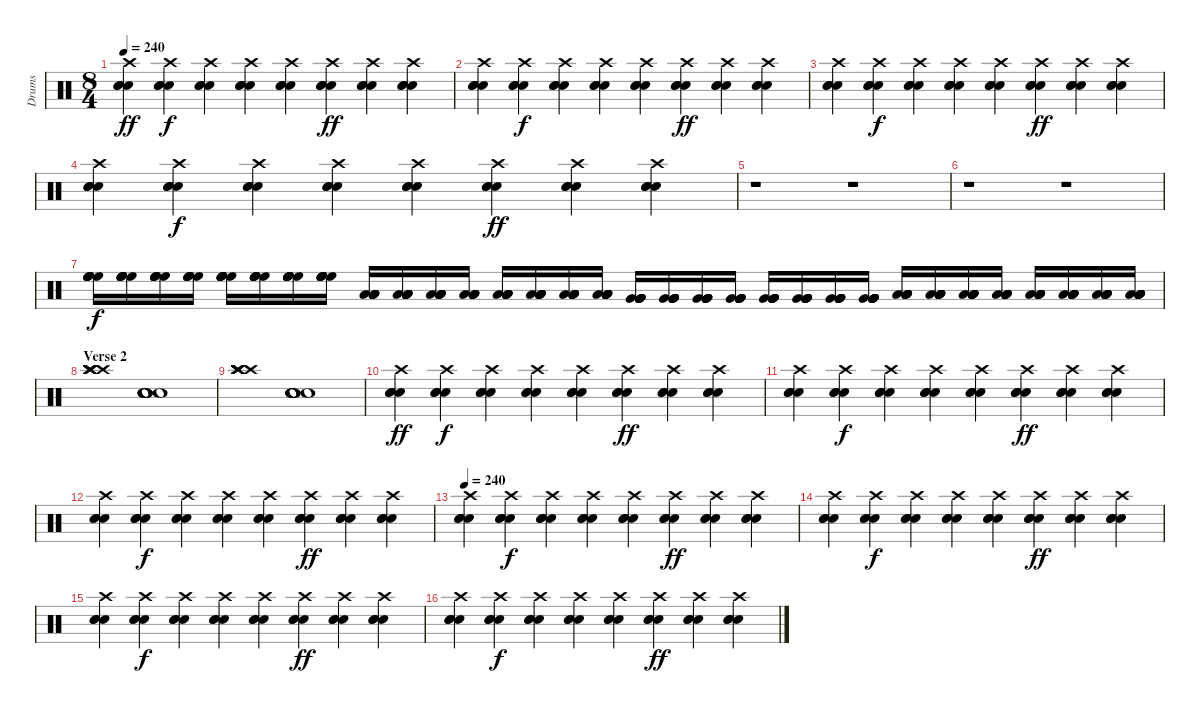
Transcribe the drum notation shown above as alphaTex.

\track ("Drums" "Drums") {instrument percussion}
\staff {score}
\articulation defaults
\ts (8 4)
\tempo 240
\clef neutral
\ks c
("Crash high (hit)" "Snare (hit) 2" "Snare (hit) 2" "Snare (hit) 2").4{dy ff} ("Crash high (hit)" "Snare (hit) 2" "Snare (hit) 2" "Snare (hit) 2").4{dy f} ("Crash high (hit)" "Snare (hit) 2" "Snare (hit) 2" "Snare (hit) 2").4 ("Crash high (hit)" "Snare (hit) 2" "Snare (hit) 2" "Snare (hit) 2").4 ("Crash high (hit)" "Snare (hit) 2" "Snare (hit) 2" "Snare (hit) 2").4 ("Crash high (hit)" "Snare (hit) 2" "Snare (hit) 2" "Snare (hit) 2").4{dy ff} ("Crash high (hit)" "Snare (hit) 2" "Snare (hit) 2" "Snare (hit) 2").4 ("Crash high (hit)" "Snare (hit) 2" "Snare (hit) 2" "Snare (hit) 2").4 |
("Crash high (hit)" "Snare (hit) 2" "Snare (hit) 2" "Snare (hit) 2").4 ("Crash high (hit)" "Snare (hit) 2" "Snare (hit) 2" "Snare (hit) 2").4{dy f} ("Crash high (hit)" "Snare (hit) 2" "Snare (hit) 2" "Snare (hit) 2").4 ("Crash high (hit)" "Snare (hit) 2" "Snare (hit) 2" "Snare (hit) 2").4 ("Crash high (hit)" "Snare (hit) 2" "Snare (hit) 2" "Snare (hit) 2").4 ("Crash high (hit)" "Snare (hit) 2" "Snare (hit) 2" "Snare (hit) 2").4{dy ff} ("Crash high (hit)" "Snare (hit) 2" "Snare (hit) 2" "Snare (hit) 2").4 ("Crash high (hit)" "Snare (hit) 2" "Snare (hit) 2" "Snare (hit) 2").4 |
("Crash high (hit)" "Snare (hit) 2" "Snare (hit) 2" "Snare (hit) 2").4 ("Crash high (hit)" "Snare (hit) 2" "Snare (hit) 2" "Snare (hit) 2").4{dy f} ("Crash high (hit)" "Snare (hit) 2" "Snare (hit) 2" "Snare (hit) 2").4 ("Crash high (hit)" "Snare (hit) 2" "Snare (hit) 2" "Snare (hit) 2").4 ("Crash high (hit)" "Snare (hit) 2" "Snare (hit) 2" "Snare (hit) 2").4 ("Crash high (hit)" "Snare (hit) 2" "Snare (hit) 2" "Snare (hit) 2").4{dy ff} ("Crash high (hit)" "Snare (hit) 2" "Snare (hit) 2" "Snare (hit) 2").4 ("Crash high (hit)" "Snare (hit) 2" "Snare (hit) 2" "Snare (hit) 2").4 |
("Crash high (hit)" "Snare (hit) 2" "Snare (hit) 2" "Snare (hit) 2").4 ("Crash high (hit)" "Snare (hit) 2" "Snare (hit) 2" "Snare (hit) 2").4{dy f} ("Crash high (hit)" "Snare (hit) 2" "Snare (hit) 2" "Snare (hit) 2").4 ("Crash high (hit)" "Snare (hit) 2" "Snare (hit) 2" "Snare (hit) 2").4 ("Crash high (hit)" "Snare (hit) 2" "Snare (hit) 2" "Snare (hit) 2").4 ("Crash high (hit)" "Snare (hit) 2" "Snare (hit) 2" "Snare (hit) 2").4{dy ff} ("Crash high (hit)" "Snare (hit) 2" "Snare (hit) 2" "Snare (hit) 2").4 ("Crash high (hit)" "Snare (hit) 2" "Snare (hit) 2" "Snare (hit) 2").4 |
r.1 r.1 |
r.1 r.1 |
("High Floor Tom (hit)" "High Floor Tom (hit)" "High Floor Tom (hit)" "High Floor Tom (hit)" "High Floor Tom (hit)" "High Floor Tom (hit)").16{dy f} ("High Floor Tom (hit)" "High Floor Tom (hit)" "High Floor Tom (hit)" "High Floor Tom (hit)" "High Floor Tom (hit)" "High Floor Tom (hit)").16 ("High Floor Tom (hit)" "High Floor Tom (hit)" "High Floor Tom (hit)" "High Floor Tom (hit)" "High Floor Tom (hit)" "High Floor Tom (hit)").16 ("High Floor Tom (hit)" "High Floor Tom (hit)" "High Floor Tom (hit)" "High Floor Tom (hit)" "High Floor Tom (hit)" "High Floor Tom (hit)").16 ("High Floor Tom (hit)" "High Floor Tom (hit)" "High Floor Tom (hit)" "High Floor Tom (hit)" "High Floor Tom (hit)" "High Floor Tom (hit)").16 ("High Floor Tom (hit)" "High Floor Tom (hit)" "High Floor Tom (hit)" "High Floor Tom (hit)" "High Floor Tom (hit)" "High Floor Tom (hit)").16 ("High Floor Tom (hit)" "High Floor Tom (hit)" "High Floor Tom (hit)" "High Floor Tom (hit)" "High Floor Tom (hit)" "High Floor Tom (hit)").16 ("High Floor Tom (hit)" "High Floor Tom (hit)" "High Floor Tom (hit)" "High Floor Tom (hit)" "High Floor Tom (hit)" "High Floor Tom (hit)").16 ("Low Tom (hit)" "Low Tom (hit)" "Low Tom (hit)" "Low Tom (hit)" "Low Tom (hit)" "Low Tom (hit)").16 ("Low Tom (hit)" "Low Tom (hit)" "Low Tom (hit)" "Low Tom (hit)" "Low Tom (hit)" "Low Tom (hit)").16 ("Low Tom (hit)" "Low Tom (hit)" "Low Tom (hit)" "Low Tom (hit)" "Low Tom (hit)" "Low Tom (hit)").16 ("Low Tom (hit)" "Low Tom (hit)" "Low Tom (hit)" "Low Tom (hit)" "Low Tom (hit)" "Low Tom (hit)").16 ("Low Tom (hit)" "Low Tom (hit)" "Low Tom (hit)" "Low Tom (hit)" "Low Tom (hit)" "Low Tom (hit)").16 ("Low Tom (hit)" "Low Tom (hit)" "Low Tom (hit)" "Low Tom (hit)" "Low Tom (hit)" "Low Tom (hit)").16 ("Low Tom (hit)" "Low Tom (hit)" "Low Tom (hit)" "Low Tom (hit)" "Low Tom (hit)" "Low Tom (hit)").16 ("Low Tom (hit)" "Low Tom (hit)" "Low Tom (hit)" "Low Tom (hit)" "Low Tom (hit)" "Low Tom (hit)").16 ("Very Low Tom (hit)" "Very Low Tom (hit)" "Very Low Tom (hit)" "Very Low Tom (hit)" "Very Low Tom (hit)" "Very Low Tom (hit)").16 ("Very Low Tom (hit)" "Very Low Tom (hit)" "Very Low Tom (hit)" "Very Low Tom (hit)" "Very Low Tom (hit)" "Very Low Tom (hit)").16 ("Very Low Tom (hit)" "Very Low Tom (hit)" "Very Low Tom (hit)" "Very Low Tom (hit)" "Very Low Tom (hit)" "Very Low Tom (hit)").16 ("Very Low Tom (hit)" "Very Low Tom (hit)" "Very Low Tom (hit)" "Very Low Tom (hit)" "Very Low Tom (hit)" "Very Low Tom (hit)").16 ("Very Low Tom (hit)" "Very Low Tom (hit)" "Very Low Tom (hit)" "Very Low Tom (hit)" "Very Low Tom (hit)" "Very Low Tom (hit)").16 ("Very Low Tom (hit)" "Very Low Tom (hit)" "Very Low Tom (hit)" "Very Low Tom (hit)" "Very Low Tom (hit)" "Very Low Tom (hit)").16 ("Very Low Tom (hit)" "Very Low Tom (hit)" "Very Low Tom (hit)" "Very Low Tom (hit)" "Very Low Tom (hit)" "Very Low Tom (hit)").16 ("Very Low Tom (hit)" "Very Low Tom (hit)" "Very Low Tom (hit)" "Very Low Tom (hit)" "Very Low Tom (hit)" "Very Low Tom (hit)").16 ("Low Floor Tom (hit)" "Low Floor Tom (hit)" "Low Floor Tom (hit)" "Low Floor Tom (hit)" "Low Floor Tom (hit)" "Low Floor Tom (hit)").16 ("Low Floor Tom (hit)" "Low Floor Tom (hit)" "Low Floor Tom (hit)" "Low Floor Tom (hit)" "Low Floor Tom (hit)" "Low Floor Tom (hit)").16 ("Low Floor Tom (hit)" "Low Floor Tom (hit)" "Low Floor Tom (hit)" "Low Floor Tom (hit)" "Low Floor Tom (hit)" "Low Floor Tom (hit)").16 ("Low Floor Tom (hit)" "Low Floor Tom (hit)" "Low Floor Tom (hit)" "Low Floor Tom (hit)" "Low Floor Tom (hit)" "Low Floor Tom (hit)").16 ("Low Floor Tom (hit)" "Low Floor Tom (hit)" "Low Floor Tom (hit)" "Low Floor Tom (hit)" "Low Floor Tom (hit)" "Low Floor Tom (hit)").16 ("Low Floor Tom (hit)" "Low Floor Tom (hit)" "Low Floor Tom (hit)" "Low Floor Tom (hit)" "Low Floor Tom (hit)" "Low Floor Tom (hit)").16 ("Low Floor Tom (hit)" "Low Floor Tom (hit)" "Low Floor Tom (hit)" "Low Floor Tom (hit)" "Low Floor Tom (hit)" "Low Floor Tom (hit)").16 ("Low Floor Tom (hit)" "Low Floor Tom (hit)" "Low Floor Tom (hit)" "Low Floor Tom (hit)" "Low Floor Tom (hit)" "Low Floor Tom (hit)").16 |
\section ("" "Verse 2")
("Crash high (hit)" "Crash high (hit)" "Crash high (hit)" "Crash high (hit)" "Crash high (hit)" "Crash high (hit)").1 ("Snare (hit) 2" "Snare (hit) 2" "Snare (hit) 2" "Snare (hit) 2" "Snare (hit) 2" "Snare (hit) 2").1 |
("Crash high (hit)" "Crash high (hit)" "Crash high (hit)" "Crash high (hit)" "Crash high (hit)" "Crash high (hit)").1 ("Snare (hit) 2" "Snare (hit) 2" "Snare (hit) 2" "Snare (hit) 2" "Snare (hit) 2" "Snare (hit) 2").1 |
("Crash high (hit)" "Snare (hit) 2" "Snare (hit) 2" "Snare (hit) 2").4{dy ff} ("Crash high (hit)" "Snare (hit) 2" "Snare (hit) 2" "Snare (hit) 2").4{dy f} ("Crash high (hit)" "Snare (hit) 2" "Snare (hit) 2" "Snare (hit) 2").4 ("Crash high (hit)" "Snare (hit) 2" "Snare (hit) 2" "Snare (hit) 2").4 ("Crash high (hit)" "Snare (hit) 2" "Snare (hit) 2" "Snare (hit) 2").4 ("Crash high (hit)" "Snare (hit) 2" "Snare (hit) 2" "Snare (hit) 2").4{dy ff} ("Crash high (hit)" "Snare (hit) 2" "Snare (hit) 2" "Snare (hit) 2").4 ("Crash high (hit)" "Snare (hit) 2" "Snare (hit) 2" "Snare (hit) 2").4 |
("Crash high (hit)" "Snare (hit) 2" "Snare (hit) 2" "Snare (hit) 2").4 ("Crash high (hit)" "Snare (hit) 2" "Snare (hit) 2" "Snare (hit) 2").4{dy f} ("Crash high (hit)" "Snare (hit) 2" "Snare (hit) 2" "Snare (hit) 2").4 ("Crash high (hit)" "Snare (hit) 2" "Snare (hit) 2" "Snare (hit) 2").4 ("Crash high (hit)" "Snare (hit) 2" "Snare (hit) 2" "Snare (hit) 2").4 ("Crash high (hit)" "Snare (hit) 2" "Snare (hit) 2" "Snare (hit) 2").4{dy ff} ("Crash high (hit)" "Snare (hit) 2" "Snare (hit) 2" "Snare (hit) 2").4 ("Crash high (hit)" "Snare (hit) 2" "Snare (hit) 2" "Snare (hit) 2").4 |
("Crash high (hit)" "Snare (hit) 2" "Snare (hit) 2" "Snare (hit) 2").4 ("Crash high (hit)" "Snare (hit) 2" "Snare (hit) 2" "Snare (hit) 2").4{dy f} ("Crash high (hit)" "Snare (hit) 2" "Snare (hit) 2" "Snare (hit) 2").4 ("Crash high (hit)" "Snare (hit) 2" "Snare (hit) 2" "Snare (hit) 2").4 ("Crash high (hit)" "Snare (hit) 2" "Snare (hit) 2" "Snare (hit) 2").4 ("Crash high (hit)" "Snare (hit) 2" "Snare (hit) 2" "Snare (hit) 2").4{dy ff} ("Crash high (hit)" "Snare (hit) 2" "Snare (hit) 2" "Snare (hit) 2").4 ("Crash high (hit)" "Snare (hit) 2" "Snare (hit) 2" "Snare (hit) 2").4 |
\tempo 240
("Crash high (hit)" "Snare (hit) 2" "Snare (hit) 2" "Snare (hit) 2").4 ("Crash high (hit)" "Snare (hit) 2" "Snare (hit) 2" "Snare (hit) 2").4{dy f} ("Crash high (hit)" "Snare (hit) 2" "Snare (hit) 2" "Snare (hit) 2").4 ("Crash high (hit)" "Snare (hit) 2" "Snare (hit) 2" "Snare (hit) 2").4 ("Crash high (hit)" "Snare (hit) 2" "Snare (hit) 2" "Snare (hit) 2").4 ("Crash high (hit)" "Snare (hit) 2" "Snare (hit) 2" "Snare (hit) 2").4{dy ff} ("Crash high (hit)" "Snare (hit) 2" "Snare (hit) 2" "Snare (hit) 2").4 ("Crash high (hit)" "Snare (hit) 2" "Snare (hit) 2" "Snare (hit) 2").4 |
("Crash high (hit)" "Snare (hit) 2" "Snare (hit) 2" "Snare (hit) 2").4 ("Crash high (hit)" "Snare (hit) 2" "Snare (hit) 2" "Snare (hit) 2").4{dy f} ("Crash high (hit)" "Snare (hit) 2" "Snare (hit) 2" "Snare (hit) 2").4 ("Crash high (hit)" "Snare (hit) 2" "Snare (hit) 2" "Snare (hit) 2").4 ("Crash high (hit)" "Snare (hit) 2" "Snare (hit) 2" "Snare (hit) 2").4 ("Crash high (hit)" "Snare (hit) 2" "Snare (hit) 2" "Snare (hit) 2").4{dy ff} ("Crash high (hit)" "Snare (hit) 2" "Snare (hit) 2" "Snare (hit) 2").4 ("Crash high (hit)" "Snare (hit) 2" "Snare (hit) 2" "Snare (hit) 2").4 |
("Crash high (hit)" "Snare (hit) 2" "Snare (hit) 2" "Snare (hit) 2").4 ("Crash high (hit)" "Snare (hit) 2" "Snare (hit) 2" "Snare (hit) 2").4{dy f} ("Crash high (hit)" "Snare (hit) 2" "Snare (hit) 2" "Snare (hit) 2").4 ("Crash high (hit)" "Snare (hit) 2" "Snare (hit) 2" "Snare (hit) 2").4 ("Crash high (hit)" "Snare (hit) 2" "Snare (hit) 2" "Snare (hit) 2").4 ("Crash high (hit)" "Snare (hit) 2" "Snare (hit) 2" "Snare (hit) 2").4{dy ff} ("Crash high (hit)" "Snare (hit) 2" "Snare (hit) 2" "Snare (hit) 2").4 ("Crash high (hit)" "Snare (hit) 2" "Snare (hit) 2" "Snare (hit) 2").4 |
("Crash high (hit)" "Snare (hit) 2" "Snare (hit) 2" "Snare (hit) 2").4 ("Crash high (hit)" "Snare (hit) 2" "Snare (hit) 2" "Snare (hit) 2").4{dy f} ("Crash high (hit)" "Snare (hit) 2" "Snare (hit) 2" "Snare (hit) 2").4 ("Crash high (hit)" "Snare (hit) 2" "Snare (hit) 2" "Snare (hit) 2").4 ("Crash high (hit)" "Snare (hit) 2" "Snare (hit) 2" "Snare (hit) 2").4 ("Crash high (hit)" "Snare (hit) 2" "Snare (hit) 2" "Snare (hit) 2").4{dy ff} ("Crash high (hit)" "Snare (hit) 2" "Snare (hit) 2" "Snare (hit) 2").4 ("Crash high (hit)" "Snare (hit) 2" "Snare (hit) 2" "Snare (hit) 2").4
